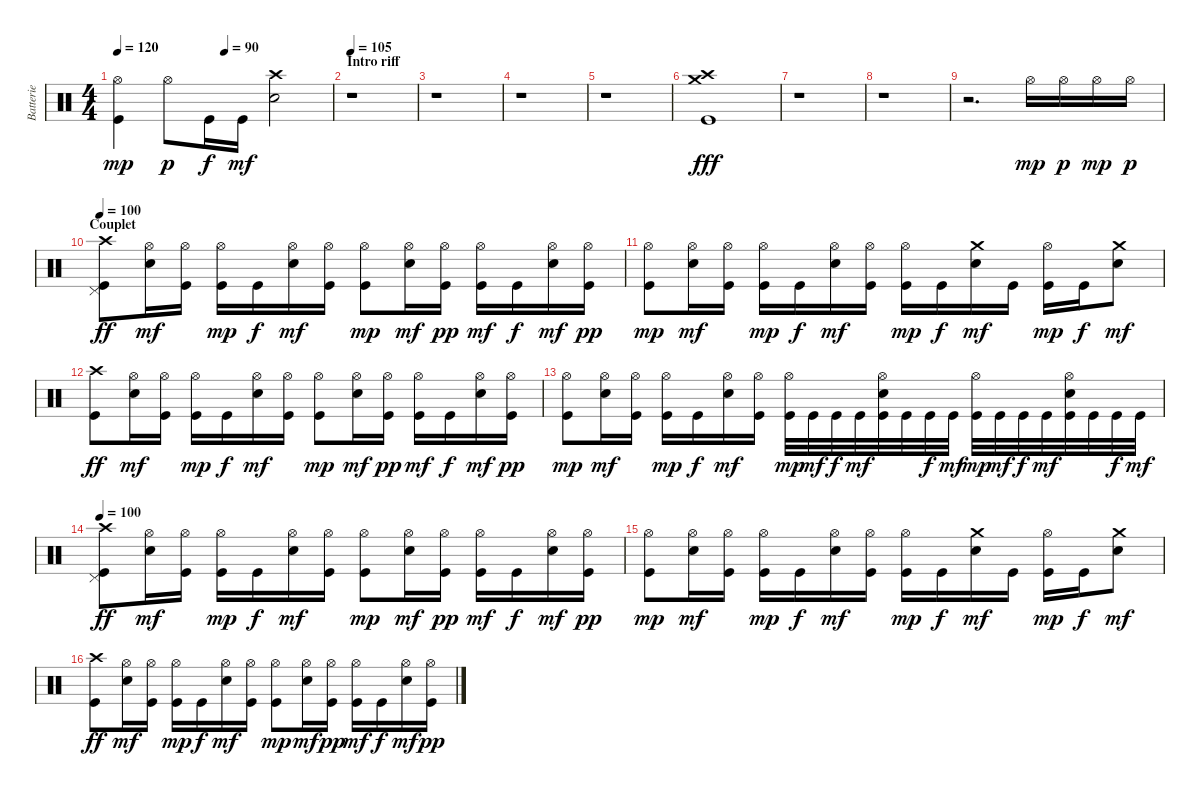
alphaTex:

\track ("Batterie" "Batterie") {instrument percussion}
\staff {score}
\articulation defaults
\ts (4 4)
\tempo 120
\tempo (90 0.5)
\clef neutral
\ks c
("Hi-Hat (open)" "Kick (hit)").4{dy mp} "Hi-Hat (open)".8{dy p} "Kick (hit)".16{dy f} "Kick (hit)".16{dy mf} ("Crash high (hit)" "Electric Snare (hit)").2 |
\section ("" "Intro riff")
\tempo 105
r.1 |
r.1 |
r.1 |
r.1 |
("Crash high (hit)" "Crash medium (hit)" "Kick (hit)").1{dy fff} |
r.1 |
r.1 |
r.2{d} "Hi-Hat (open)".16{dy mp} "Hi-Hat (open)".16{dy p} "Hi-Hat (open)".16{dy mp} "Hi-Hat (open)".16{dy p} |
\section ("" "Couplet")
\tempo 100
("Crash high (hit)" "Pedal Hi-Hat (hit)" "Kick (hit)").8{dy ff} ("Hi-Hat (open)" "Electric Snare (hit)").16{dy mf} ("Hi-Hat (open)" "Kick (hit)").16 ("Hi-Hat (open)" "Kick (hit)").16{dy mp} "Kick (hit)".16{dy f} ("Hi-Hat (open)" "Electric Snare (hit)").16{dy mf} ("Hi-Hat (open)" "Kick (hit)").16 ("Hi-Hat (open)" "Kick (hit)").8{dy mp} ("Hi-Hat (open)" "Electric Snare (hit)").16{dy mf} ("Hi-Hat (open)" "Kick (hit)").16{dy pp} ("Hi-Hat (open)" "Kick (hit)").16{dy mf} "Kick (hit)".16{dy f} ("Hi-Hat (open)" "Electric Snare (hit)").16{dy mf} ("Hi-Hat (open)" "Kick (hit)").16{dy pp} |
("Hi-Hat (open)" "Kick (hit)").8{dy mp} ("Hi-Hat (open)" "Electric Snare (hit)").16{dy mf} ("Hi-Hat (open)" "Kick (hit)").16 ("Hi-Hat (open)" "Kick (hit)").16{dy mp} "Kick (hit)".16{dy f} ("Hi-Hat (open)" "Electric Snare (hit)").16{dy mf} ("Hi-Hat (open)" "Kick (hit)").16 ("Hi-Hat (open)" "Kick (hit)").16{dy mp} "Kick (hit)".16{dy f} ("Crash medium (hit)" "Electric Snare (hit)").16{dy mf} "Kick (hit)".16 ("Hi-Hat (open)" "Kick (hit)").16{dy mp} "Kick (hit)".16{dy f} ("Crash medium (hit)" "Electric Snare (hit)").8{dy mf} |
("Crash high (hit)" "Kick (hit)").8{dy ff} ("Hi-Hat (open)" "Electric Snare (hit)").16{dy mf} ("Hi-Hat (open)" "Kick (hit)").16 ("Hi-Hat (open)" "Kick (hit)").16{dy mp} "Kick (hit)".16{dy f} ("Hi-Hat (open)" "Electric Snare (hit)").16{dy mf} ("Hi-Hat (open)" "Kick (hit)").16 ("Hi-Hat (open)" "Kick (hit)").8{dy mp} ("Hi-Hat (open)" "Electric Snare (hit)").16{dy mf} ("Hi-Hat (open)" "Kick (hit)").16{dy pp} ("Hi-Hat (open)" "Kick (hit)").16{dy mf} "Kick (hit)".16{dy f} ("Hi-Hat (open)" "Electric Snare (hit)").16{dy mf} ("Hi-Hat (open)" "Kick (hit)").16{dy pp} |
("Hi-Hat (open)" "Kick (hit)").8{dy mp} ("Hi-Hat (open)" "Electric Snare (hit)").16{dy mf} ("Hi-Hat (open)" "Kick (hit)").16 ("Hi-Hat (open)" "Kick (hit)").16{dy mp} "Kick (hit)".16{dy f} ("Hi-Hat (open)" "Electric Snare (hit)").16{dy mf} ("Hi-Hat (open)" "Kick (hit)").16 ("Hi-Hat (open)" "Kick (hit)").32{dy mp} "Kick (hit)".32{dy mf} "Kick (hit)".32{dy f} "Kick (hit)".32{dy mf} ("Hi-Hat (open)" "Electric Snare (hit)" "Kick (hit)").32 "Kick (hit)".32 "Kick (hit)".32{dy f} "Kick (hit)".32{dy mf} ("Hi-Hat (open)" "Kick (hit)").32{dy mp} "Kick (hit)".32{dy mf} "Kick (hit)".32{dy f} "Kick (hit)".32{dy mf} ("Hi-Hat (open)" "Electric Snare (hit)" "Kick (hit)").32 "Kick (hit)".32 "Kick (hit)".32{dy f} "Kick (hit)".32{dy mf} |
\tempo 100
("Crash high (hit)" "Pedal Hi-Hat (hit)" "Kick (hit)").8{dy ff} ("Hi-Hat (open)" "Electric Snare (hit)").16{dy mf} ("Hi-Hat (open)" "Kick (hit)").16 ("Hi-Hat (open)" "Kick (hit)").16{dy mp} "Kick (hit)".16{dy f} ("Hi-Hat (open)" "Electric Snare (hit)").16{dy mf} ("Hi-Hat (open)" "Kick (hit)").16 ("Hi-Hat (open)" "Kick (hit)").8{dy mp} ("Hi-Hat (open)" "Electric Snare (hit)").16{dy mf} ("Hi-Hat (open)" "Kick (hit)").16{dy pp} ("Hi-Hat (open)" "Kick (hit)").16{dy mf} "Kick (hit)".16{dy f} ("Hi-Hat (open)" "Electric Snare (hit)").16{dy mf} ("Hi-Hat (open)" "Kick (hit)").16{dy pp} |
("Hi-Hat (open)" "Kick (hit)").8{dy mp} ("Hi-Hat (open)" "Electric Snare (hit)").16{dy mf} ("Hi-Hat (open)" "Kick (hit)").16 ("Hi-Hat (open)" "Kick (hit)").16{dy mp} "Kick (hit)".16{dy f} ("Hi-Hat (open)" "Electric Snare (hit)").16{dy mf} ("Hi-Hat (open)" "Kick (hit)").16 ("Hi-Hat (open)" "Kick (hit)").16{dy mp} "Kick (hit)".16{dy f} ("Crash medium (hit)" "Electric Snare (hit)").16{dy mf} "Kick (hit)".16 ("Hi-Hat (open)" "Kick (hit)").16{dy mp} "Kick (hit)".16{dy f} ("Crash medium (hit)" "Electric Snare (hit)").8{dy mf} |
("Crash high (hit)" "Kick (hit)").8{dy ff} ("Hi-Hat (open)" "Electric Snare (hit)").16{dy mf} ("Hi-Hat (open)" "Kick (hit)").16 ("Hi-Hat (open)" "Kick (hit)").16{dy mp} "Kick (hit)".16{dy f} ("Hi-Hat (open)" "Electric Snare (hit)").16{dy mf} ("Hi-Hat (open)" "Kick (hit)").16 ("Hi-Hat (open)" "Kick (hit)").8{dy mp} ("Hi-Hat (open)" "Electric Snare (hit)").16{dy mf} ("Hi-Hat (open)" "Kick (hit)").16{dy pp} ("Hi-Hat (open)" "Kick (hit)").16{dy mf} "Kick (hit)".16{dy f} ("Hi-Hat (open)" "Electric Snare (hit)").16{dy mf} ("Hi-Hat (open)" "Kick (hit)").16{dy pp}
